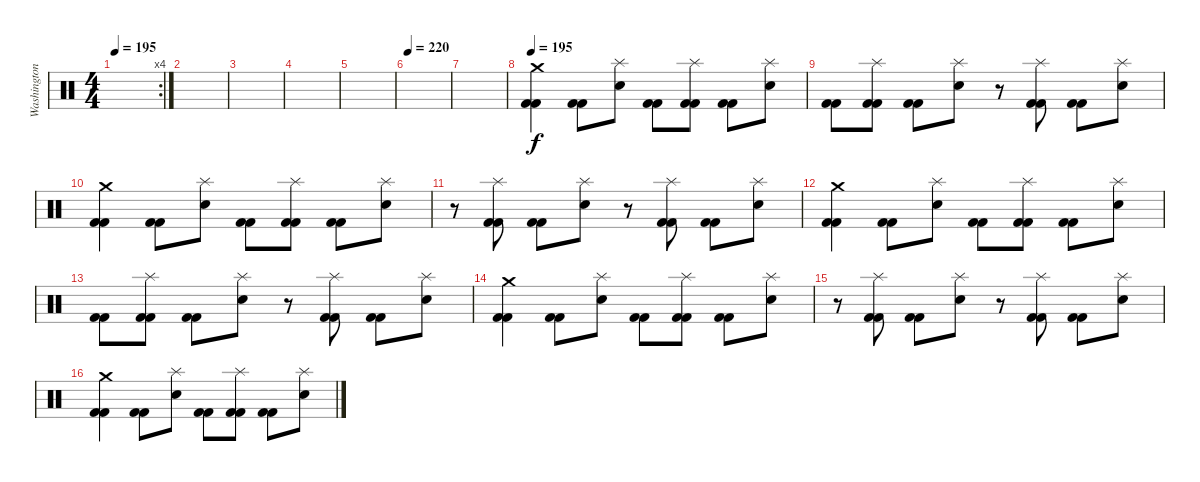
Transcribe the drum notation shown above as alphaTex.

\track ("Washington" "Washington") {solo instrument percussion}
\staff {score}
\articulation defaults
\rc 4
\ts (4 4)
\tempo 195
\clef neutral
\ks c
|
|
|
|
|
\tempo 220
|
|
\tempo 195
("Crash medium (hit)" "Kick (hit) 2" "Kick (hit) 2").4 ("Kick (hit) 2" "Kick (hit) 2").8 ("Splash (hit)" "Electric Snare (hit)").8 ("Kick (hit) 2" "Kick (hit) 2").8 ("Splash (hit)" "Kick (hit) 2" "Kick (hit) 2").8 ("Kick (hit) 2" "Kick (hit) 2").8 ("Splash (hit)" "Electric Snare (hit)").8 |
("Kick (hit) 2" "Kick (hit) 2").8 ("Splash (hit)" "Kick (hit) 2" "Kick (hit) 2").8 ("Kick (hit) 2" "Kick (hit) 2").8 ("Splash (hit)" "Electric Snare (hit)").8 r.8 ("Splash (hit)" "Kick (hit) 2" "Kick (hit) 2").8 ("Kick (hit) 2" "Kick (hit) 2").8 ("Splash (hit)" "Electric Snare (hit)").8 |
("Crash medium (hit)" "Kick (hit) 2" "Kick (hit) 2").4 ("Kick (hit) 2" "Kick (hit) 2").8 ("Splash (hit)" "Electric Snare (hit)").8 ("Kick (hit) 2" "Kick (hit) 2").8 ("Splash (hit)" "Kick (hit) 2" "Kick (hit) 2").8 ("Kick (hit) 2" "Kick (hit) 2").8 ("Splash (hit)" "Electric Snare (hit)").8 |
r.8 ("Splash (hit)" "Kick (hit) 2" "Kick (hit) 2").8 ("Kick (hit) 2" "Kick (hit) 2").8 ("Splash (hit)" "Electric Snare (hit)").8 r.8 ("Splash (hit)" "Kick (hit) 2" "Kick (hit) 2").8 ("Kick (hit) 2" "Kick (hit) 2").8 ("Splash (hit)" "Electric Snare (hit)").8 |
("Crash medium (hit)" "Kick (hit) 2" "Kick (hit) 2").4 ("Kick (hit) 2" "Kick (hit) 2").8 ("Splash (hit)" "Electric Snare (hit)").8 ("Kick (hit) 2" "Kick (hit) 2").8 ("Splash (hit)" "Kick (hit) 2" "Kick (hit) 2").8 ("Kick (hit) 2" "Kick (hit) 2").8 ("Splash (hit)" "Electric Snare (hit)").8 |
("Kick (hit) 2" "Kick (hit) 2").8 ("Splash (hit)" "Kick (hit) 2" "Kick (hit) 2").8 ("Kick (hit) 2" "Kick (hit) 2").8 ("Splash (hit)" "Electric Snare (hit)").8 r.8 ("Splash (hit)" "Kick (hit) 2" "Kick (hit) 2").8 ("Kick (hit) 2" "Kick (hit) 2").8 ("Splash (hit)" "Electric Snare (hit)").8 |
("Crash medium (hit)" "Kick (hit) 2" "Kick (hit) 2").4 ("Kick (hit) 2" "Kick (hit) 2").8 ("Splash (hit)" "Electric Snare (hit)").8 ("Kick (hit) 2" "Kick (hit) 2").8 ("Splash (hit)" "Kick (hit) 2" "Kick (hit) 2").8 ("Kick (hit) 2" "Kick (hit) 2").8 ("Splash (hit)" "Electric Snare (hit)").8 |
r.8 ("Splash (hit)" "Kick (hit) 2" "Kick (hit) 2").8 ("Kick (hit) 2" "Kick (hit) 2").8 ("Splash (hit)" "Electric Snare (hit)").8 r.8 ("Splash (hit)" "Kick (hit) 2" "Kick (hit) 2").8 ("Kick (hit) 2" "Kick (hit) 2").8 ("Splash (hit)" "Electric Snare (hit)").8 |
("Crash medium (hit)" "Kick (hit) 2" "Kick (hit) 2").4 ("Kick (hit) 2" "Kick (hit) 2").8 ("Splash (hit)" "Electric Snare (hit)").8 ("Kick (hit) 2" "Kick (hit) 2").8 ("Splash (hit)" "Kick (hit) 2" "Kick (hit) 2").8 ("Kick (hit) 2" "Kick (hit) 2").8 ("Splash (hit)" "Electric Snare (hit)").8
